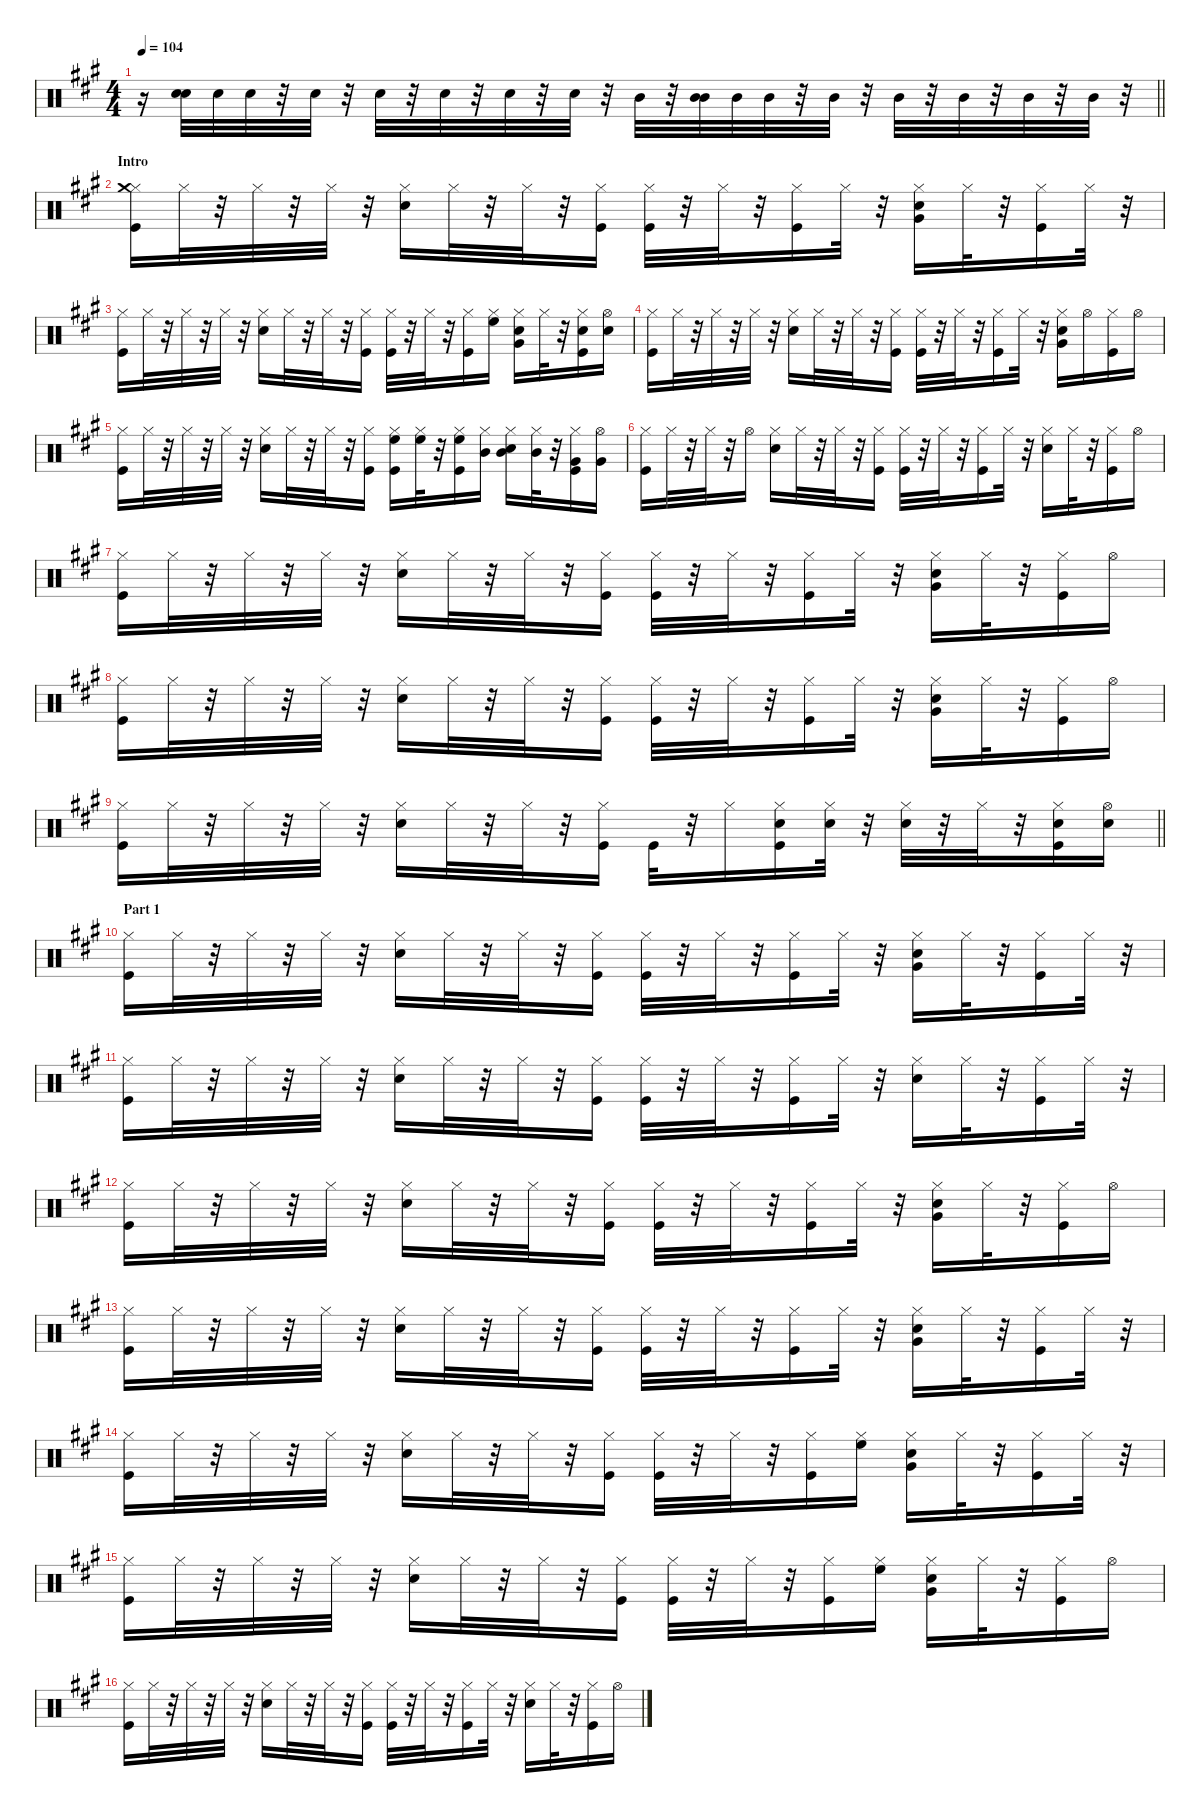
\defaultSystemsLayout 4
\hideDynamics
\bracketExtendMode nobrackets
\singleTrackTrackNamePolicy hidden
\multiTrackTrackNamePolicy hidden
\otherSystemsTrackNameOrientation horizontal
\track ("Drums   " "drm.") {instrument percussion}
\staff {score}
\articulation defaults
\ts (4 4)
\beaming (8 2 2 2 2)
\tempo 104
\clef neutral
\barLineRight lightlight
\ks a
r.16{dy f beam Down} ("Snare (hit) 2"{acc forcenatural} "Snare (hit) 2"{acc forcenatural}).32{beam Down} "Snare (hit) 2"{acc forcenatural}.32{beam Down} "Snare (hit) 2"{acc forcenatural}.32{dy ff beam Down} r.32{beam Down} "Snare (hit) 2"{acc forcenatural}.32{dy f beam Down} r.32{beam Down} "Snare (hit) 2"{acc forcenatural}.32{dy mf beam Down} r.32{beam Down} "Snare (hit) 2"{acc forcenatural}.32{dy f beam Down} r.32{beam Down} "Snare (hit) 2"{acc forcenatural}.32{dy ff beam Down} r.32{beam Down} "Snare (hit) 2"{acc forcenatural}.32{beam Down} r.32{beam Down} "Mid Tom (hit)"{acc forcenatural}.32{dy mp beam Down} r.32{beam Down} ("Mid Tom (hit)"{acc forcenatural} "Mid Tom (hit)"{acc forcenatural}).32{dy f beam Down} "Mid Tom (hit)"{acc forcenatural}.32{beam Down} "Mid Tom (hit)"{acc forcenatural}.32{dy ff beam Down} r.32{beam Down} "Mid Tom (hit)"{acc forcenatural}.32{dy f beam Down} r.32{beam Down} "Mid Tom (hit)"{acc forcenatural}.32{dy mf beam Down} r.32{beam Down} "Mid Tom (hit)"{acc forcenatural}.32{dy f beam Down} r.32{beam Down} "Mid Tom (hit)"{acc forcenatural}.32{dy ff beam Down} r.32{beam Down} "Mid Tom (hit)"{acc forcenatural}.32{beam Down} r.32{beam Down} |
\section ("" "Intro")
("Kick (hit)"{acc forcenatural} "Hi-Hat (closed)"{acc forcenatural} "Crash medium (hit)"{acc forcenatural}).16{dy f beam Down} "Hi-Hat (closed)"{acc forcenatural}.32{dy mp beam Down} r.32{beam Down} "Hi-Hat (closed)"{acc forcenatural}.32{dy f beam Down} r.32{beam Down} "Hi-Hat (closed)"{acc forcenatural}.32{beam Down} r.32{beam Down} ("Snare (hit) 2"{acc forcenatural} "Hi-Hat (closed)"{acc forcenatural}).16{dy fff beam Down} "Hi-Hat (closed)"{acc forcenatural}.32{dy mp beam Down} r.32{beam Down} "Hi-Hat (closed)"{acc forcenatural}.32{dy f beam Down} r.32{beam Down} ("Kick (hit)"{acc forcenatural} "Hi-Hat (closed)"{acc forcenatural}).16{dy mf beam Down} ("Kick (hit)"{acc forcenatural} "Hi-Hat (closed)"{acc forcenatural}).32{dy f beam Down} r.32{beam Down} "Hi-Hat (closed)"{acc forcenatural}.32{dy mp beam Down} r.32{beam Down} ("Kick (hit)"{acc forcenatural} "Hi-Hat (closed)"{acc forcenatural}).16{dy f beam Down} "Hi-Hat (closed)"{acc forcenatural}.32{beam Down} r.32{beam Down} ("Snare (hit) 2"{acc forcenatural} "Hi-Hat (closed)"{acc forcenatural} "Very Low Tom (hit)"{acc forcenatural}).16{dy fff beam Down} "Hi-Hat (closed)"{acc forcenatural}.32{dy mp beam Down} r.32{beam Down} ("Kick (hit)"{acc forcenatural} "Hi-Hat (closed)"{acc forcenatural}).16{dy f beam Down} "Hi-Hat (closed)"{acc forcenatural}.32{beam Down} r.32{beam Down} |
("Kick (hit)"{acc forcenatural} "Hi-Hat (closed)"{acc forcenatural}).16{beam Down} "Hi-Hat (closed)"{acc forcenatural}.32{dy mp beam Down} r.32{beam Down} "Hi-Hat (closed)"{acc forcenatural}.32{dy f beam Down} r.32{beam Down} "Hi-Hat (closed)"{acc forcenatural}.32{beam Down} r.32{beam Down} ("Snare (hit) 2"{acc forcenatural} "Hi-Hat (closed)"{acc forcenatural}).16{dy fff beam Down} "Hi-Hat (closed)"{acc forcenatural}.32{dy mp beam Down} r.32{beam Down} "Hi-Hat (closed)"{acc forcenatural}.32{dy f beam Down} r.32{beam Down} ("Kick (hit)"{acc forcenatural} "Hi-Hat (closed)"{acc forcenatural}).16{dy mf beam Down} ("Kick (hit)"{acc forcenatural} "Hi-Hat (closed)"{acc forcenatural}).32{dy f beam Down} r.32{beam Down} "Hi-Hat (closed)"{acc forcenatural}.32{dy mp beam Down} r.32{beam Down} ("Kick (hit)"{acc forcenatural} "Hi-Hat (closed)"{acc forcenatural}).16{dy f beam Down} ("Hi-Hat (closed)"{acc forcenatural} "High Floor Tom (hit)"{acc forcenatural}).16{beam Down} ("Snare (hit) 2"{acc forcenatural} "Hi-Hat (closed)"{acc forcenatural} "Very Low Tom (hit)"{acc forcenatural}).16{dy fff beam Down} "Hi-Hat (closed)"{acc forcenatural}.32{dy mp beam Down} r.32{beam Down} ("Kick (hit)"{acc forcenatural} "Snare (hit) 2"{acc forcenatural} "Hi-Hat (closed)"{acc forcenatural}).16{dy f beam Down} ("Snare (hit) 2"{acc forcenatural} "Hi-Hat (open)"{acc forcenatural}).16{beam Down} |
("Kick (hit)"{acc forcenatural} "Hi-Hat (closed)"{acc forcenatural}).16{beam Down} "Hi-Hat (closed)"{acc forcenatural}.32{dy mp beam Down} r.32{beam Down} "Hi-Hat (closed)"{acc forcenatural}.32{dy f beam Down} r.32{beam Down} "Hi-Hat (closed)"{acc forcenatural}.32{beam Down} r.32{beam Down} ("Snare (hit) 2"{acc forcenatural} "Hi-Hat (closed)"{acc forcenatural}).16{dy fff beam Down} "Hi-Hat (closed)"{acc forcenatural}.32{dy mp beam Down} r.32{beam Down} "Hi-Hat (closed)"{acc forcenatural}.32{dy f beam Down} r.32{beam Down} ("Kick (hit)"{acc forcenatural} "Hi-Hat (closed)"{acc forcenatural}).16{dy mf beam Down} ("Kick (hit)"{acc forcenatural} "Hi-Hat (closed)"{acc forcenatural}).32{dy f beam Down} r.32{beam Down} "Hi-Hat (closed)"{acc forcenatural}.32{dy mp beam Down} r.32{beam Down} ("Kick (hit)"{acc forcenatural} "Hi-Hat (closed)"{acc forcenatural}).16{dy f beam Down} "Hi-Hat (closed)"{acc forcenatural}.32{beam Down} r.32{beam Down} ("Snare (hit) 2"{acc forcenatural} "Hi-Hat (closed)"{acc forcenatural} "Very Low Tom (hit)"{acc forcenatural}).16{dy fff beam Down} "Hi-Hat (open)"{acc forcenatural}.16{dy mp beam Down} ("Kick (hit)"{acc forcenatural} "Hi-Hat (closed)"{acc forcenatural}).16{dy f beam Down} "Hi-Hat (open)"{acc forcenatural}.16{beam Down} |
("Kick (hit)"{acc forcenatural} "Hi-Hat (closed)"{acc forcenatural}).16{beam Down} "Hi-Hat (closed)"{acc forcenatural}.32{dy mp beam Down} r.32{beam Down} "Hi-Hat (closed)"{acc forcenatural}.32{dy f beam Down} r.32{beam Down} "Hi-Hat (closed)"{acc forcenatural}.32{beam Down} r.32{beam Down} ("Snare (hit) 2"{acc forcenatural} "Hi-Hat (closed)"{acc forcenatural}).16{dy fff beam Down} "Hi-Hat (closed)"{acc forcenatural}.32{dy mp beam Down} r.32{beam Down} "Hi-Hat (closed)"{acc forcenatural}.32{dy f beam Down} r.32{beam Down} ("Kick (hit)"{acc forcenatural} "Hi-Hat (closed)"{acc forcenatural}).16{dy mf beam Down} ("Kick (hit)"{acc forcenatural} "Hi-Hat (closed)"{acc forcenatural} "High Floor Tom (hit)"{acc forcenatural}).16{dy f beam Down} ("Hi-Hat (closed)"{acc forcenatural} "High Floor Tom (hit)"{acc forcenatural}).32{dy mp beam Down} r.32{beam Down} ("Kick (hit)"{acc forcenatural} "Hi-Hat (closed)"{acc forcenatural} "High Floor Tom (hit)"{acc forcenatural}).16{dy f beam Down} ("Hi-Hat (closed)"{acc forcenatural} "Mid Tom (hit)"{acc forcenatural}).16{beam Down} ("Snare (hit) 2"{acc forcenatural} "Hi-Hat (closed)"{acc forcenatural} "Mid Tom (hit)"{acc forcenatural}).16{dy fff beam Down} ("Hi-Hat (closed)"{acc forcenatural} "Mid Tom (hit)"{acc forcenatural}).32{dy mp beam Down} r.32{beam Down} ("Kick (hit)"{acc forcenatural} "Hi-Hat (closed)"{acc forcenatural} "Very Low Tom (hit)"{acc forcenatural}).16{dy f beam Down} ("Very Low Tom (hit)"{acc forcenatural} "Hi-Hat (open)"{acc forcenatural}).16{beam Down} |
("Kick (hit)"{acc forcenatural} "Hi-Hat (closed)"{acc forcenatural}).16{beam Down} "Hi-Hat (closed)"{acc forcenatural}.32{dy mp beam Down} r.32{beam Down} "Hi-Hat (closed)"{acc forcenatural}.32{dy f beam Down} r.32{beam Down} "Hi-Hat (open)"{acc forcenatural}.16{beam Down} ("Snare (hit) 2"{acc forcenatural} "Hi-Hat (closed)"{acc forcenatural}).16{dy fff beam Down} "Hi-Hat (closed)"{acc forcenatural}.32{dy mp beam Down} r.32{beam Down} "Hi-Hat (closed)"{acc forcenatural}.32{dy f beam Down} r.32{beam Down} ("Kick (hit)"{acc forcenatural} "Hi-Hat (closed)"{acc forcenatural}).16{dy mf beam Down} ("Kick (hit)"{acc forcenatural} "Hi-Hat (closed)"{acc forcenatural}).32{dy f beam Down} r.32{beam Down} "Hi-Hat (closed)"{acc forcenatural}.32{dy mp beam Down} r.32{beam Down} ("Kick (hit)"{acc forcenatural} "Hi-Hat (closed)"{acc forcenatural}).16{dy f beam Down} "Hi-Hat (closed)"{acc forcenatural}.32{beam Down} r.32{beam Down} ("Snare (hit) 2"{acc forcenatural} "Hi-Hat (closed)"{acc forcenatural}).16{dy fff beam Down} "Hi-Hat (closed)"{acc forcenatural}.32{dy mp beam Down} r.32{beam Down} ("Kick (hit)"{acc forcenatural} "Hi-Hat (closed)"{acc forcenatural}).16{dy f beam Down} "Hi-Hat (open)"{acc forcenatural}.16{beam Down} |
("Kick (hit)"{acc forcenatural} "Hi-Hat (closed)"{acc forcenatural}).16{beam Down} "Hi-Hat (closed)"{acc forcenatural}.32{dy mp beam Down} r.32{beam Down} "Hi-Hat (closed)"{acc forcenatural}.32{dy f beam Down} r.32{beam Down} "Hi-Hat (closed)"{acc forcenatural}.32{beam Down} r.32{beam Down} ("Snare (hit) 2"{acc forcenatural} "Hi-Hat (closed)"{acc forcenatural}).16{dy fff beam Down} "Hi-Hat (closed)"{acc forcenatural}.32{dy mp beam Down} r.32{beam Down} "Hi-Hat (closed)"{acc forcenatural}.32{dy f beam Down} r.32{beam Down} ("Kick (hit)"{acc forcenatural} "Hi-Hat (closed)"{acc forcenatural}).16{dy mf beam Down} ("Kick (hit)"{acc forcenatural} "Hi-Hat (closed)"{acc forcenatural}).32{dy f beam Down} r.32{beam Down} "Hi-Hat (closed)"{acc forcenatural}.32{dy mp beam Down} r.32{beam Down} ("Kick (hit)"{acc forcenatural} "Hi-Hat (closed)"{acc forcenatural}).16{dy f beam Down} "Hi-Hat (closed)"{acc forcenatural}.32{beam Down} r.32{beam Down} ("Snare (hit) 2"{acc forcenatural} "Hi-Hat (closed)"{acc forcenatural} "Very Low Tom (hit)"{acc forcenatural}).16{dy fff beam Down} "Hi-Hat (closed)"{acc forcenatural}.32{dy mp beam Down} r.32{beam Down} ("Kick (hit)"{acc forcenatural} "Hi-Hat (closed)"{acc forcenatural}).16{dy f beam Down} "Hi-Hat (open)"{acc forcenatural}.16{beam Down} |
("Kick (hit)"{acc forcenatural} "Hi-Hat (closed)"{acc forcenatural}).16{beam Down} "Hi-Hat (closed)"{acc forcenatural}.32{dy mp beam Down} r.32{beam Down} "Hi-Hat (closed)"{acc forcenatural}.32{dy f beam Down} r.32{beam Down} "Hi-Hat (closed)"{acc forcenatural}.32{beam Down} r.32{beam Down} ("Snare (hit) 2"{acc forcenatural} "Hi-Hat (closed)"{acc forcenatural}).16{dy fff beam Down} "Hi-Hat (closed)"{acc forcenatural}.32{dy mp beam Down} r.32{beam Down} "Hi-Hat (closed)"{acc forcenatural}.32{dy f beam Down} r.32{beam Down} ("Kick (hit)"{acc forcenatural} "Hi-Hat (closed)"{acc forcenatural}).16{dy mf beam Down} ("Kick (hit)"{acc forcenatural} "Hi-Hat (closed)"{acc forcenatural}).32{dy f beam Down} r.32{beam Down} "Hi-Hat (closed)"{acc forcenatural}.32{dy mp beam Down} r.32{beam Down} ("Kick (hit)"{acc forcenatural} "Hi-Hat (closed)"{acc forcenatural}).16{dy f beam Down} "Hi-Hat (closed)"{acc forcenatural}.32{beam Down} r.32{beam Down} ("Snare (hit) 2"{acc forcenatural} "Hi-Hat (closed)"{acc forcenatural} "Very Low Tom (hit)"{acc forcenatural}).16{dy fff beam Down} "Hi-Hat (closed)"{acc forcenatural}.32{dy mp beam Down} r.32{beam Down} ("Kick (hit)"{acc forcenatural} "Hi-Hat (closed)"{acc forcenatural}).16{dy f beam Down} "Hi-Hat (open)"{acc forcenatural}.16{beam Down} |
\barLineRight lightlight
("Kick (hit)"{acc forcenatural} "Hi-Hat (closed)"{acc forcenatural}).16{beam Down} "Hi-Hat (closed)"{acc forcenatural}.32{dy mp beam Down} r.32{beam Down} "Hi-Hat (closed)"{acc forcenatural}.32{dy f beam Down} r.32{beam Down} "Hi-Hat (closed)"{acc forcenatural}.32{beam Down} r.32{beam Down} ("Snare (hit) 2"{acc forcenatural} "Hi-Hat (closed)"{acc forcenatural}).16{dy fff beam Down} "Hi-Hat (closed)"{acc forcenatural}.32{dy mp beam Down} r.32{beam Down} "Hi-Hat (closed)"{acc forcenatural}.32{dy f beam Down} r.32{beam Down} ("Kick (hit)"{acc forcenatural} "Hi-Hat (closed)"{acc forcenatural}).16{dy mf beam Down} "Kick (hit)"{acc forcenatural}.32{dy f beam Down} r.32{beam Down} "Hi-Hat (closed)"{acc forcenatural}.16{dy mp beam Down} ("Kick (hit)"{acc forcenatural} "Snare (hit) 2"{acc forcenatural} "Hi-Hat (closed)"{acc forcenatural}).16{dy f beam Down} ("Snare (hit) 2"{acc forcenatural} "Hi-Hat (closed)"{acc forcenatural}).32{beam Down} r.32{beam Down} ("Snare (hit) 2"{acc forcenatural} "Hi-Hat (closed)"{acc forcenatural}).32{dy fff beam Down} r.32{beam Down} "Hi-Hat (closed)"{acc forcenatural}.32{dy mp beam Down} r.32{beam Down} ("Kick (hit)"{acc forcenatural} "Snare (hit) 2"{acc forcenatural} "Hi-Hat (closed)"{acc forcenatural}).16{dy f beam Down} ("Snare (hit) 2"{acc forcenatural} "Hi-Hat (open)"{acc forcenatural}).16{dy ff beam Down} |
\section ("" "Part 1")
("Kick (hit)"{acc forcenatural} "Hi-Hat (closed)"{acc forcenatural}).16{dy f beam Down} "Hi-Hat (closed)"{acc forcenatural}.32{dy mp beam Down} r.32{beam Down} "Hi-Hat (closed)"{acc forcenatural}.32{dy f beam Down} r.32{beam Down} "Hi-Hat (closed)"{acc forcenatural}.32{beam Down} r.32{beam Down} ("Snare (hit) 2"{acc forcenatural} "Hi-Hat (closed)"{acc forcenatural}).16{dy fff beam Down} "Hi-Hat (closed)"{acc forcenatural}.32{dy mp beam Down} r.32{beam Down} "Hi-Hat (closed)"{acc forcenatural}.32{dy f beam Down} r.32{beam Down} ("Kick (hit)"{acc forcenatural} "Hi-Hat (closed)"{acc forcenatural}).16{dy mf beam Down} ("Kick (hit)"{acc forcenatural} "Hi-Hat (closed)"{acc forcenatural}).32{dy f beam Down} r.32{beam Down} "Hi-Hat (closed)"{acc forcenatural}.32{dy mp beam Down} r.32{beam Down} ("Kick (hit)"{acc forcenatural} "Hi-Hat (closed)"{acc forcenatural}).16{dy f beam Down} "Hi-Hat (closed)"{acc forcenatural}.32{beam Down} r.32{beam Down} ("Snare (hit) 2"{acc forcenatural} "Hi-Hat (closed)"{acc forcenatural} "Very Low Tom (hit)"{acc forcenatural}).16{dy fff beam Down} "Hi-Hat (closed)"{acc forcenatural}.32{dy mp beam Down} r.32{beam Down} ("Kick (hit)"{acc forcenatural} "Hi-Hat (closed)"{acc forcenatural}).16{dy f beam Down} "Hi-Hat (closed)"{acc forcenatural}.32{beam Down} r.32{beam Down} |
("Kick (hit)"{acc forcenatural} "Hi-Hat (closed)"{acc forcenatural}).16{beam Down} "Hi-Hat (closed)"{acc forcenatural}.32{dy mp beam Down} r.32{beam Down} "Hi-Hat (closed)"{acc forcenatural}.32{dy f beam Down} r.32{beam Down} "Hi-Hat (closed)"{acc forcenatural}.32{beam Down} r.32{beam Down} ("Snare (hit) 2"{acc forcenatural} "Hi-Hat (closed)"{acc forcenatural}).16{dy fff beam Down} "Hi-Hat (closed)"{acc forcenatural}.32{dy mp beam Down} r.32{beam Down} "Hi-Hat (closed)"{acc forcenatural}.32{dy f beam Down} r.32{beam Down} ("Kick (hit)"{acc forcenatural} "Hi-Hat (closed)"{acc forcenatural}).16{dy mf beam Down} ("Kick (hit)"{acc forcenatural} "Hi-Hat (closed)"{acc forcenatural}).32{dy f beam Down} r.32{beam Down} "Hi-Hat (closed)"{acc forcenatural}.32{dy mp beam Down} r.32{beam Down} ("Kick (hit)"{acc forcenatural} "Hi-Hat (closed)"{acc forcenatural}).16{dy f beam Down} "Hi-Hat (closed)"{acc forcenatural}.32{beam Down} r.32{beam Down} ("Snare (hit) 2"{acc forcenatural} "Hi-Hat (closed)"{acc forcenatural}).16{dy fff beam Down} "Hi-Hat (closed)"{acc forcenatural}.32{dy mp beam Down} r.32{beam Down} ("Kick (hit)"{acc forcenatural} "Hi-Hat (closed)"{acc forcenatural}).16{dy f beam Down} "Hi-Hat (closed)"{acc forcenatural}.32{beam Down} r.32{beam Down} |
("Kick (hit)"{acc forcenatural} "Hi-Hat (closed)"{acc forcenatural}).16{beam Down} "Hi-Hat (closed)"{acc forcenatural}.32{dy mp beam Down} r.32{beam Down} "Hi-Hat (closed)"{acc forcenatural}.32{dy f beam Down} r.32{beam Down} "Hi-Hat (closed)"{acc forcenatural}.32{beam Down} r.32{beam Down} ("Snare (hit) 2"{acc forcenatural} "Hi-Hat (closed)"{acc forcenatural}).16{dy fff beam Down} "Hi-Hat (closed)"{acc forcenatural}.32{dy mp beam Down} r.32{beam Down} "Hi-Hat (closed)"{acc forcenatural}.32{dy f beam Down} r.32{beam Down} ("Kick (hit)"{acc forcenatural} "Hi-Hat (closed)"{acc forcenatural}).16{dy mf beam Down} ("Kick (hit)"{acc forcenatural} "Hi-Hat (closed)"{acc forcenatural}).32{dy f beam Down} r.32{beam Down} "Hi-Hat (closed)"{acc forcenatural}.32{dy mp beam Down} r.32{beam Down} ("Kick (hit)"{acc forcenatural} "Hi-Hat (closed)"{acc forcenatural}).16{dy f beam Down} "Hi-Hat (closed)"{acc forcenatural}.32{beam Down} r.32{beam Down} ("Snare (hit) 2"{acc forcenatural} "Hi-Hat (closed)"{acc forcenatural} "Very Low Tom (hit)"{acc forcenatural}).16{dy fff beam Down} "Hi-Hat (closed)"{acc forcenatural}.32{dy mp beam Down} r.32{beam Down} ("Kick (hit)"{acc forcenatural} "Hi-Hat (closed)"{acc forcenatural}).16{dy f beam Down} "Hi-Hat (open)"{acc forcenatural}.16{beam Down} |
("Kick (hit)"{acc forcenatural} "Hi-Hat (closed)"{acc forcenatural}).16{beam Down} "Hi-Hat (closed)"{acc forcenatural}.32{dy mp beam Down} r.32{beam Down} "Hi-Hat (closed)"{acc forcenatural}.32{dy f beam Down} r.32{beam Down} "Hi-Hat (closed)"{acc forcenatural}.32{beam Down} r.32{beam Down} ("Snare (hit) 2"{acc forcenatural} "Hi-Hat (closed)"{acc forcenatural}).16{dy fff beam Down} "Hi-Hat (closed)"{acc forcenatural}.32{dy mp beam Down} r.32{beam Down} "Hi-Hat (closed)"{acc forcenatural}.32{dy f beam Down} r.32{beam Down} ("Kick (hit)"{acc forcenatural} "Hi-Hat (closed)"{acc forcenatural}).16{dy mf beam Down} ("Kick (hit)"{acc forcenatural} "Hi-Hat (closed)"{acc forcenatural}).32{dy f beam Down} r.32{beam Down} "Hi-Hat (closed)"{acc forcenatural}.32{dy mp beam Down} r.32{beam Down} ("Kick (hit)"{acc forcenatural} "Hi-Hat (closed)"{acc forcenatural}).16{dy f beam Down} "Hi-Hat (closed)"{acc forcenatural}.32{beam Down} r.32{beam Down} ("Snare (hit) 2"{acc forcenatural} "Hi-Hat (closed)"{acc forcenatural} "Very Low Tom (hit)"{acc forcenatural}).16{dy fff beam Down} "Hi-Hat (closed)"{acc forcenatural}.32{dy mp beam Down} r.32{beam Down} ("Kick (hit)"{acc forcenatural} "Hi-Hat (closed)"{acc forcenatural}).16{dy f beam Down} "Hi-Hat (closed)"{acc forcenatural}.32{beam Down} r.32{beam Down} |
("Kick (hit)"{acc forcenatural} "Hi-Hat (closed)"{acc forcenatural}).16{beam Down} "Hi-Hat (closed)"{acc forcenatural}.32{dy mp beam Down} r.32{beam Down} "Hi-Hat (closed)"{acc forcenatural}.32{dy f beam Down} r.32{beam Down} "Hi-Hat (closed)"{acc forcenatural}.32{beam Down} r.32{beam Down} ("Snare (hit) 2"{acc forcenatural} "Hi-Hat (closed)"{acc forcenatural}).16{dy fff beam Down} "Hi-Hat (closed)"{acc forcenatural}.32{dy mp beam Down} r.32{beam Down} "Hi-Hat (closed)"{acc forcenatural}.32{dy f beam Down} r.32{beam Down} ("Kick (hit)"{acc forcenatural} "Hi-Hat (closed)"{acc forcenatural}).16{dy mf beam Down} ("Kick (hit)"{acc forcenatural} "Hi-Hat (closed)"{acc forcenatural}).32{dy f beam Down} r.32{beam Down} "Hi-Hat (closed)"{acc forcenatural}.32{dy mp beam Down} r.32{beam Down} ("Kick (hit)"{acc forcenatural} "Hi-Hat (closed)"{acc forcenatural}).16{dy f beam Down} ("Hi-Hat (closed)"{acc forcenatural} "High Floor Tom (hit)"{acc forcenatural}).16{beam Down} ("Snare (hit) 2"{acc forcenatural} "Hi-Hat (closed)"{acc forcenatural} "Very Low Tom (hit)"{acc forcenatural}).16{dy fff beam Down} "Hi-Hat (closed)"{acc forcenatural}.32{dy mp beam Down} r.32{beam Down} ("Kick (hit)"{acc forcenatural} "Hi-Hat (closed)"{acc forcenatural}).16{dy f beam Down} "Hi-Hat (closed)"{acc forcenatural}.32{beam Down} r.32{beam Down} |
("Kick (hit)"{acc forcenatural} "Hi-Hat (closed)"{acc forcenatural}).16{beam Down} "Hi-Hat (closed)"{acc forcenatural}.32{dy mp beam Down} r.32{beam Down} "Hi-Hat (closed)"{acc forcenatural}.32{dy f beam Down} r.32{beam Down} "Hi-Hat (closed)"{acc forcenatural}.32{beam Down} r.32{beam Down} ("Snare (hit) 2"{acc forcenatural} "Hi-Hat (closed)"{acc forcenatural}).16{dy fff beam Down} "Hi-Hat (closed)"{acc forcenatural}.32{dy mp beam Down} r.32{beam Down} "Hi-Hat (closed)"{acc forcenatural}.32{dy f beam Down} r.32{beam Down} ("Kick (hit)"{acc forcenatural} "Hi-Hat (closed)"{acc forcenatural}).16{dy mf beam Down} ("Kick (hit)"{acc forcenatural} "Hi-Hat (closed)"{acc forcenatural}).32{dy f beam Down} r.32{beam Down} "Hi-Hat (closed)"{acc forcenatural}.32{dy mp beam Down} r.32{beam Down} ("Kick (hit)"{acc forcenatural} "Hi-Hat (closed)"{acc forcenatural}).16{dy f beam Down} ("Hi-Hat (closed)"{acc forcenatural} "High Floor Tom (hit)"{acc forcenatural}).16{beam Down} ("Snare (hit) 2"{acc forcenatural} "Hi-Hat (closed)"{acc forcenatural} "Very Low Tom (hit)"{acc forcenatural}).16{dy fff beam Down} "Hi-Hat (closed)"{acc forcenatural}.32{dy mp beam Down} r.32{beam Down} ("Kick (hit)"{acc forcenatural} "Hi-Hat (closed)"{acc forcenatural}).16{dy f beam Down} "Hi-Hat (open)"{acc forcenatural}.16{beam Down} |
("Kick (hit)"{acc forcenatural} "Hi-Hat (closed)"{acc forcenatural}).16{beam Down} "Hi-Hat (closed)"{acc forcenatural}.32{dy mp beam Down} r.32{beam Down} "Hi-Hat (closed)"{acc forcenatural}.32{dy f beam Down} r.32{beam Down} "Hi-Hat (closed)"{acc forcenatural}.32{beam Down} r.32{beam Down} ("Snare (hit) 2"{acc forcenatural} "Hi-Hat (closed)"{acc forcenatural}).16{dy fff beam Down} "Hi-Hat (closed)"{acc forcenatural}.32{dy mp beam Down} r.32{beam Down} "Hi-Hat (closed)"{acc forcenatural}.32{dy f beam Down} r.32{beam Down} ("Kick (hit)"{acc forcenatural} "Hi-Hat (closed)"{acc forcenatural}).16{dy mf beam Down} ("Kick (hit)"{acc forcenatural} "Hi-Hat (closed)"{acc forcenatural}).32{dy f beam Down} r.32{beam Down} "Hi-Hat (closed)"{acc forcenatural}.32{dy mp beam Down} r.32{beam Down} ("Kick (hit)"{acc forcenatural} "Hi-Hat (closed)"{acc forcenatural}).16{dy f beam Down} "Hi-Hat (closed)"{acc forcenatural}.32{beam Down} r.32{beam Down} ("Snare (hit) 2"{acc forcenatural} "Hi-Hat (closed)"{acc forcenatural}).16{dy fff beam Down} "Hi-Hat (closed)"{acc forcenatural}.32{dy mp beam Down} r.32{beam Down} ("Kick (hit)"{acc forcenatural} "Hi-Hat (closed)"{acc forcenatural}).16{dy f beam Down} "Hi-Hat (open)"{acc forcenatural}.16{beam Down}
